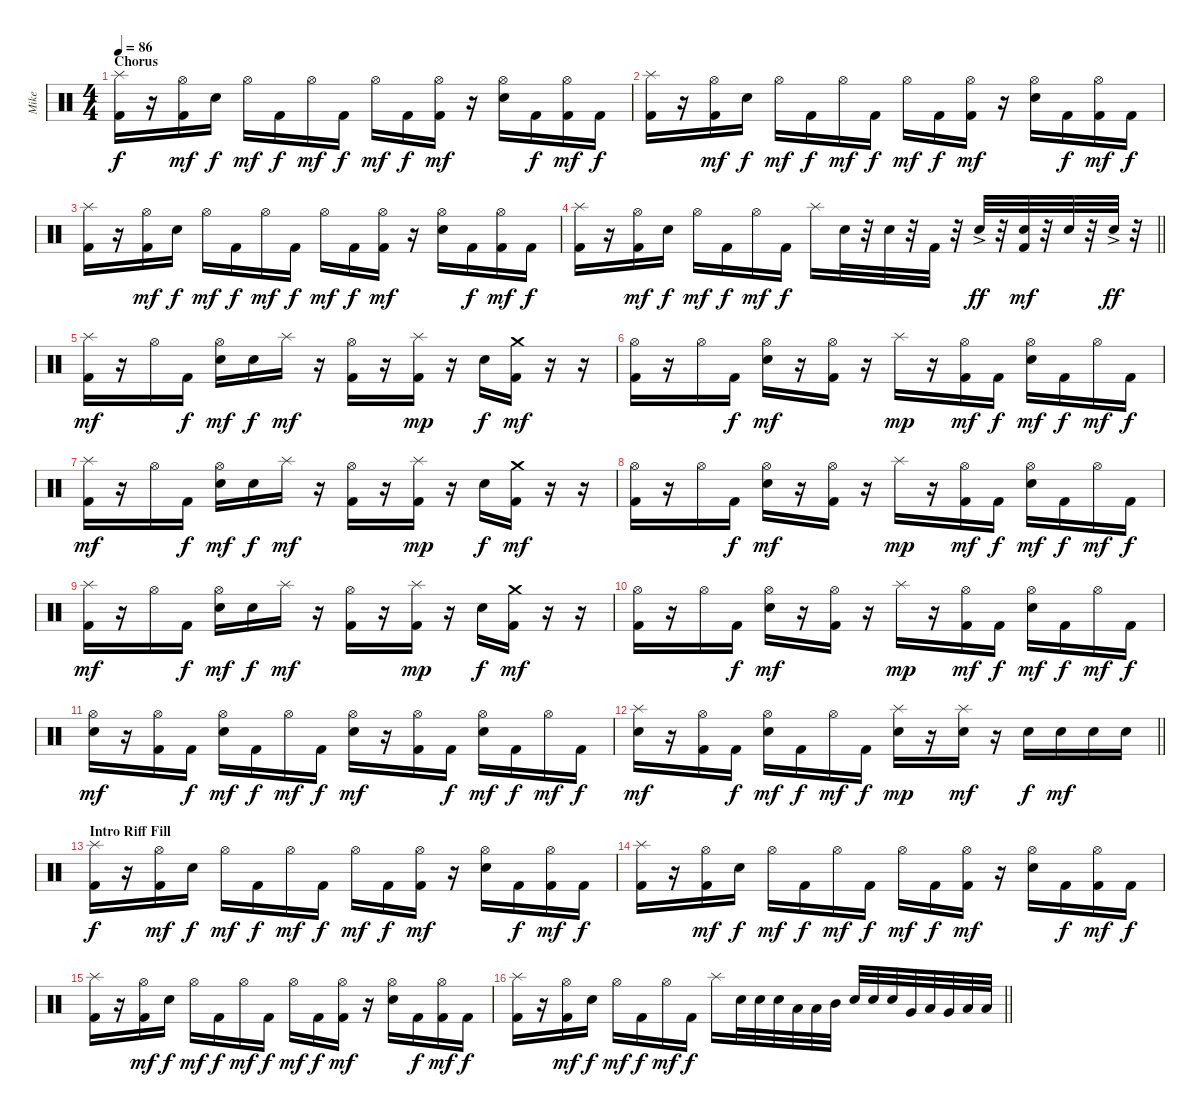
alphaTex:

\track ("Mike" "Mike") {instrument percussion}
\staff {score}
\articulation defaults
\ts (4 4)
\section ("" "Chorus")
\tempo 86
\clef neutral
\ks c
("Splash (hit)" "Kick (hit) 2").16{dy f} r.16 ("Hi-Hat (open)" "Kick (hit) 2").16{dy mf} "Snare (hit) 2".16{dy f} "Hi-Hat (open)".16{dy mf} "Kick (hit) 2".16{dy f} "Hi-Hat (open)".16{dy mf} "Kick (hit) 2".16{dy f} "Hi-Hat (open)".16{dy mf} "Kick (hit) 2".16{dy f} ("Hi-Hat (open)" "Kick (hit) 2").16{dy mf} r.16 ("Hi-Hat (open)" "Snare (hit) 2").16 "Kick (hit) 2".16{dy f} ("Hi-Hat (open)" "Kick (hit) 2").16{dy mf} "Kick (hit) 2".16{dy f} |
("Splash (hit)" "Kick (hit) 2").16 r.16 ("Hi-Hat (open)" "Kick (hit) 2").16{dy mf} "Snare (hit) 2".16{dy f} "Hi-Hat (open)".16{dy mf} "Kick (hit) 2".16{dy f} "Hi-Hat (open)".16{dy mf} "Kick (hit) 2".16{dy f} "Hi-Hat (open)".16{dy mf} "Kick (hit) 2".16{dy f} ("Hi-Hat (open)" "Kick (hit) 2").16{dy mf} r.16 ("Hi-Hat (open)" "Snare (hit) 2").16 "Kick (hit) 2".16{dy f} ("Hi-Hat (open)" "Kick (hit) 2").16{dy mf} "Kick (hit) 2".16{dy f} |
("Splash (hit)" "Kick (hit) 2").16 r.16 ("Hi-Hat (open)" "Kick (hit) 2").16{dy mf} "Snare (hit) 2".16{dy f} "Hi-Hat (open)".16{dy mf} "Kick (hit) 2".16{dy f} "Hi-Hat (open)".16{dy mf} "Kick (hit) 2".16{dy f} "Hi-Hat (open)".16{dy mf} "Kick (hit) 2".16{dy f} ("Hi-Hat (open)" "Kick (hit) 2").16{dy mf} r.16 ("Hi-Hat (open)" "Snare (hit) 2").16 "Kick (hit) 2".16{dy f} ("Hi-Hat (open)" "Kick (hit) 2").16{dy mf} "Kick (hit) 2".16{dy f} |
\barLineRight lightlight
("Splash (hit)" "Kick (hit) 2").16 r.16 ("Hi-Hat (open)" "Kick (hit) 2").16{dy mf} "Snare (hit) 2".16{dy f} "Hi-Hat (open)".16{dy mf} "Kick (hit) 2".16{dy f} "Hi-Hat (open)".16{dy mf} "Kick (hit) 2".16{dy f} "Splash (hit)".16 "Snare (hit) 2".32 r.32 "Snare (hit) 2".32 r.32 "Kick (hit) 2".32 r.32 "Snare (hit) 2"{ac}.32{dy ff} r.32 ("Snare (hit) 2" "Kick (hit) 2").32{dy mf} r.32 "Snare (hit) 2".32 r.32 "Snare (hit) 2"{ac}.32{dy ff} r.32 |
("Splash (hit)" "Kick (hit) 2").16{dy mf} r.16 "Hi-Hat (open)".16 "Kick (hit) 2".16{dy f} ("Hi-Hat (open)" "Snare (hit) 2").16{dy mf} "Snare (hit) 2".16{dy f} "Splash (hit)".16{dy mf} r.16 ("Hi-Hat (open)" "Kick (hit) 2").16 r.16 ("Splash (hit)" "Kick (hit) 2").16{dy mp} r.16 "Snare (hit) 2".16{dy f} ("Crash medium (hit)" "Kick (hit) 2").16{dy mf} r.16 r.16 |
("Hi-Hat (open)" "Kick (hit) 2").16 r.16 "Hi-Hat (open)".16 "Kick (hit) 2".16{dy f} ("Hi-Hat (open)" "Snare (hit) 2").16{dy mf} r.16 ("Hi-Hat (open)" "Kick (hit) 2").16 r.16 "Splash (hit)".16{dy mp} r.16 ("Hi-Hat (open)" "Kick (hit) 2").16{dy mf} "Kick (hit) 2".16{dy f} ("Hi-Hat (open)" "Snare (hit) 2").16{dy mf} "Kick (hit) 2".16{dy f} "Hi-Hat (open)".16{dy mf} "Kick (hit) 2".16{dy f} |
("Splash (hit)" "Kick (hit) 2").16{dy mf} r.16 "Hi-Hat (open)".16 "Kick (hit) 2".16{dy f} ("Hi-Hat (open)" "Snare (hit) 2").16{dy mf} "Snare (hit) 2".16{dy f} "Splash (hit)".16{dy mf} r.16 ("Hi-Hat (open)" "Kick (hit) 2").16 r.16 ("Splash (hit)" "Kick (hit) 2").16{dy mp} r.16 "Snare (hit) 2".16{dy f} ("Crash medium (hit)" "Kick (hit) 2").16{dy mf} r.16 r.16 |
("Hi-Hat (open)" "Kick (hit) 2").16 r.16 "Hi-Hat (open)".16 "Kick (hit) 2".16{dy f} ("Hi-Hat (open)" "Snare (hit) 2").16{dy mf} r.16 ("Hi-Hat (open)" "Kick (hit) 2").16 r.16 "Splash (hit)".16{dy mp} r.16 ("Hi-Hat (open)" "Kick (hit) 2").16{dy mf} "Kick (hit) 2".16{dy f} ("Hi-Hat (open)" "Snare (hit) 2").16{dy mf} "Kick (hit) 2".16{dy f} "Hi-Hat (open)".16{dy mf} "Kick (hit) 2".16{dy f} |
("Splash (hit)" "Kick (hit) 2").16{dy mf} r.16 "Hi-Hat (open)".16 "Kick (hit) 2".16{dy f} ("Hi-Hat (open)" "Snare (hit) 2").16{dy mf} "Snare (hit) 2".16{dy f} "Splash (hit)".16{dy mf} r.16 ("Hi-Hat (open)" "Kick (hit) 2").16 r.16 ("Splash (hit)" "Kick (hit) 2").16{dy mp} r.16 "Snare (hit) 2".16{dy f} ("Crash medium (hit)" "Kick (hit) 2").16{dy mf} r.16 r.16 |
("Hi-Hat (open)" "Kick (hit) 2").16 r.16 "Hi-Hat (open)".16 "Kick (hit) 2".16{dy f} ("Hi-Hat (open)" "Snare (hit) 2").16{dy mf} r.16 ("Hi-Hat (open)" "Kick (hit) 2").16 r.16 "Splash (hit)".16{dy mp} r.16 ("Hi-Hat (open)" "Kick (hit) 2").16{dy mf} "Kick (hit) 2".16{dy f} ("Hi-Hat (open)" "Snare (hit) 2").16{dy mf} "Kick (hit) 2".16{dy f} "Hi-Hat (open)".16{dy mf} "Kick (hit) 2".16{dy f} |
("Hi-Hat (open)" "Snare (hit) 2").16{dy mf} r.16 ("Hi-Hat (open)" "Kick (hit) 2").16 "Kick (hit) 2".16{dy f} ("Hi-Hat (open)" "Snare (hit) 2").16{dy mf} "Kick (hit) 2".16{dy f} "Hi-Hat (open)".16{dy mf} "Kick (hit) 2".16{dy f} ("Hi-Hat (open)" "Snare (hit) 2").16{dy mf} r.16 ("Hi-Hat (open)" "Kick (hit) 2").16 "Kick (hit) 2".16{dy f} ("Hi-Hat (open)" "Snare (hit) 2").16{dy mf} "Kick (hit) 2".16{dy f} "Hi-Hat (open)".16{dy mf} "Kick (hit) 2".16{dy f} |
\barLineRight lightlight
("Splash (hit)" "Snare (hit) 2").16{dy mf} r.16 ("Hi-Hat (open)" "Kick (hit) 2").16 "Kick (hit) 2".16{dy f} ("Hi-Hat (open)" "Snare (hit) 2").16{dy mf} "Kick (hit) 2".16{dy f} "Hi-Hat (open)".16{dy mf} "Kick (hit) 2".16{dy f} ("Splash (hit)" "Snare (hit) 2").16{dy mp} r.16 ("Splash (hit)" "Snare (hit) 2").16{dy mf} r.16 "Snare (hit) 2".16{dy f} "Snare (hit) 2".16{dy mf} "Snare (hit) 2".16 "Snare (hit) 2".16 |
\section ("" "Intro Riff Fill")
("Splash (hit)" "Kick (hit) 2").16{dy f} r.16 ("Hi-Hat (open)" "Kick (hit) 2").16{dy mf} "Snare (hit) 2".16{dy f} "Hi-Hat (open)".16{dy mf} "Kick (hit) 2".16{dy f} "Hi-Hat (open)".16{dy mf} "Kick (hit) 2".16{dy f} "Hi-Hat (open)".16{dy mf} "Kick (hit) 2".16{dy f} ("Hi-Hat (open)" "Kick (hit) 2").16{dy mf} r.16 ("Hi-Hat (open)" "Snare (hit) 2").16 "Kick (hit) 2".16{dy f} ("Hi-Hat (open)" "Kick (hit) 2").16{dy mf} "Kick (hit) 2".16{dy f} |
("Splash (hit)" "Kick (hit) 2").16 r.16 ("Hi-Hat (open)" "Kick (hit) 2").16{dy mf} "Snare (hit) 2".16{dy f} "Hi-Hat (open)".16{dy mf} "Kick (hit) 2".16{dy f} "Hi-Hat (open)".16{dy mf} "Kick (hit) 2".16{dy f} "Hi-Hat (open)".16{dy mf} "Kick (hit) 2".16{dy f} ("Hi-Hat (open)" "Kick (hit) 2").16{dy mf} r.16 ("Hi-Hat (open)" "Snare (hit) 2").16 "Kick (hit) 2".16{dy f} ("Hi-Hat (open)" "Kick (hit) 2").16{dy mf} "Kick (hit) 2".16{dy f} |
("Splash (hit)" "Kick (hit) 2").16 r.16 ("Hi-Hat (open)" "Kick (hit) 2").16{dy mf} "Snare (hit) 2".16{dy f} "Hi-Hat (open)".16{dy mf} "Kick (hit) 2".16{dy f} "Hi-Hat (open)".16{dy mf} "Kick (hit) 2".16{dy f} "Hi-Hat (open)".16{dy mf} "Kick (hit) 2".16{dy f} ("Hi-Hat (open)" "Kick (hit) 2").16{dy mf} r.16 ("Hi-Hat (open)" "Snare (hit) 2").16 "Kick (hit) 2".16{dy f} ("Hi-Hat (open)" "Kick (hit) 2").16{dy mf} "Kick (hit) 2".16{dy f} |
\barLineRight lightlight
("Splash (hit)" "Kick (hit) 2").16 r.16 ("Hi-Hat (open)" "Kick (hit) 2").16{dy mf} "Snare (hit) 2".16{dy f} "Hi-Hat (open)".16{dy mf} "Kick (hit) 2".16{dy f} "Hi-Hat (open)".16{dy mf} "Kick (hit) 2".16{dy f} "Splash (hit)".16 "Snare (hit) 2".32 "Snare (hit) 2".32 "Snare (hit) 2".32 "Low Tom (hit)".32 "Low Tom (hit)".32 "Mid Tom (hit)".32 "Snare (hit) 2".32 "Snare (hit) 2".32 "Snare (hit) 2".32 "Very Low Tom (hit)".32 "Low Tom (hit)".32 "Very Low Tom (hit)".32 "Low Floor Tom (hit)".32 "Low Floor Tom (hit)".32
